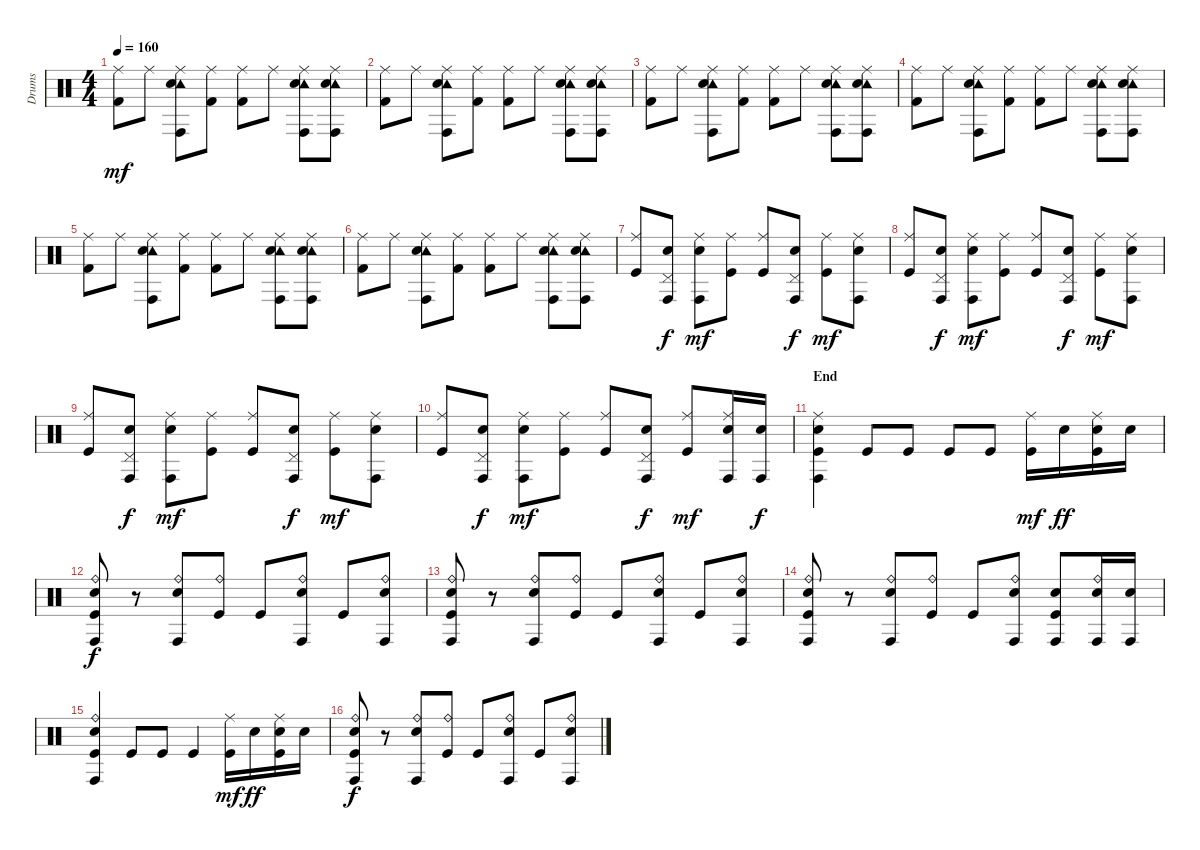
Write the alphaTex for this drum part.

\track ("Drums" "Drums") {instrument percussion}
\staff {score}
\articulation defaults
\ts (4 4)
\tempo 160
\clef neutral
\ks c
("Ride (middle)" "Kick (hit) 2").8{dy mf} "Ride (middle)".8 ("Ride (middle)" "Tambourine (hit)" "Conga high (hit)" "Electric Snare (hit)").8 ("Ride (middle)" "Kick (hit) 2").8 ("Ride (middle)" "Kick (hit) 2").8 "Ride (middle)".8 ("Ride (middle)" "Tambourine (hit)" "Conga high (hit)" "Electric Snare (hit)").8 ("Ride (middle)" "Tambourine (hit)" "Conga high (hit)" "Electric Snare (hit)").8 |
("Ride (middle)" "Kick (hit) 2").8 "Ride (middle)".8 ("Ride (middle)" "Tambourine (hit)" "Conga high (hit)" "Electric Snare (hit)").8 ("Ride (middle)" "Kick (hit) 2").8 ("Ride (middle)" "Kick (hit) 2").8 "Ride (middle)".8 ("Ride (middle)" "Tambourine (hit)" "Conga high (hit)" "Electric Snare (hit)").8 ("Ride (middle)" "Tambourine (hit)" "Conga high (hit)" "Electric Snare (hit)").8 |
("Ride (middle)" "Kick (hit) 2").8 "Ride (middle)".8 ("Ride (middle)" "Tambourine (hit)" "Conga high (hit)" "Electric Snare (hit)").8 ("Ride (middle)" "Kick (hit) 2").8 ("Ride (middle)" "Kick (hit) 2").8 "Ride (middle)".8 ("Ride (middle)" "Tambourine (hit)" "Conga high (hit)" "Electric Snare (hit)").8 ("Ride (middle)" "Tambourine (hit)" "Conga high (hit)" "Electric Snare (hit)").8 |
("Ride (middle)" "Kick (hit) 2").8 "Ride (middle)".8 ("Ride (middle)" "Tambourine (hit)" "Conga high (hit)" "Electric Snare (hit)").8 ("Ride (middle)" "Kick (hit) 2").8 ("Ride (middle)" "Kick (hit) 2").8 "Ride (middle)".8 ("Ride (middle)" "Tambourine (hit)" "Conga high (hit)" "Electric Snare (hit)").8 ("Ride (middle)" "Tambourine (hit)" "Conga high (hit)" "Electric Snare (hit)").8 |
("Ride (middle)" "Kick (hit) 2").8 "Ride (middle)".8 ("Ride (middle)" "Tambourine (hit)" "Conga high (hit)" "Electric Snare (hit)").8 ("Ride (middle)" "Kick (hit) 2").8 ("Ride (middle)" "Kick (hit) 2").8 "Ride (middle)".8 ("Ride (middle)" "Tambourine (hit)" "Conga high (hit)" "Electric Snare (hit)").8 ("Ride (middle)" "Tambourine (hit)" "Conga high (hit)" "Electric Snare (hit)").8 |
("Ride (middle)" "Kick (hit) 2").8 "Ride (middle)".8 ("Ride (middle)" "Tambourine (hit)" "Conga high (hit)" "Electric Snare (hit)").8 ("Ride (middle)" "Kick (hit) 2").8 ("Ride (middle)" "Kick (hit) 2").8 "Ride (middle)".8 ("Ride (middle)" "Tambourine (hit)" "Conga high (hit)" "Electric Snare (hit)").8 ("Ride (middle)" "Tambourine (hit)" "Conga high (hit)" "Electric Snare (hit)").8 |
("Ride (middle)" "Kick (hit)").8 ("Pedal Hi-Hat (hit)" "Conga high (hit)" "Electric Snare (hit)").8{dy f} ("Ride (middle)" "Conga high (hit)" "Electric Snare (hit)").8{dy mf} ("Ride (middle)" "Kick (hit)").8 ("Ride (middle)" "Kick (hit)").8 ("Pedal Hi-Hat (hit)" "Conga high (hit)" "Electric Snare (hit)").8{dy f} ("Ride (middle)" "Kick (hit)").8{dy mf} ("Ride (middle)" "Conga high (hit)" "Electric Snare (hit)").8 |
("Ride (middle)" "Kick (hit)").8 ("Pedal Hi-Hat (hit)" "Conga high (hit)" "Electric Snare (hit)").8{dy f} ("Ride (middle)" "Conga high (hit)" "Electric Snare (hit)").8{dy mf} ("Ride (middle)" "Kick (hit)").8 ("Ride (middle)" "Kick (hit)").8 ("Pedal Hi-Hat (hit)" "Conga high (hit)" "Electric Snare (hit)").8{dy f} ("Ride (middle)" "Kick (hit)").8{dy mf} ("Ride (middle)" "Conga high (hit)" "Electric Snare (hit)").8 |
("Ride (middle)" "Kick (hit)").8 ("Pedal Hi-Hat (hit)" "Conga high (hit)" "Electric Snare (hit)").8{dy f} ("Ride (middle)" "Conga high (hit)" "Electric Snare (hit)").8{dy mf} ("Ride (middle)" "Kick (hit)").8 ("Ride (middle)" "Kick (hit)").8 ("Pedal Hi-Hat (hit)" "Conga high (hit)" "Electric Snare (hit)").8{dy f} ("Ride (middle)" "Kick (hit)").8{dy mf} ("Ride (middle)" "Conga high (hit)" "Electric Snare (hit)").8 |
("Ride (middle)" "Kick (hit)").8 ("Pedal Hi-Hat (hit)" "Conga high (hit)" "Electric Snare (hit)").8{dy f} ("Ride (middle)" "Conga high (hit)" "Electric Snare (hit)").8{dy mf} ("Ride (middle)" "Kick (hit)").8 ("Ride (middle)" "Kick (hit)").8 ("Pedal Hi-Hat (hit)" "Conga high (hit)" "Electric Snare (hit)").8{dy f} ("Ride (middle)" "Kick (hit)").8{dy mf} ("Ride (middle)" "Conga high (hit)" "Electric Snare (hit)").16 ("Conga high (hit)" "Electric Snare (hit)").16{dy f} |
\section ("" "End")
("Ride (middle)" "Conga high (hit)" "Electric Snare (hit)" "Kick (hit)").4 "Kick (hit)".8 "Kick (hit)".8 "Kick (hit)".8 "Kick (hit)".8 ("Ride (middle)" "Kick (hit)").16{dy mf} "Electric Snare (hit)".16{dy ff} ("Ride (middle)" "Electric Snare (hit)" "Kick (hit)").16 "Electric Snare (hit)".16 |
("Ride (bell)" "Conga high (hit)" "Electric Snare (hit)" "Kick (hit)").8{dy f} r.8 ("Ride (bell)" "Conga high (hit)" "Electric Snare (hit)").8 ("Ride (bell)" "Kick (hit)").8 "Kick (hit)".8 ("Ride (bell)" "Conga high (hit)" "Electric Snare (hit)").8 "Kick (hit)".8 ("Ride (bell)" "Conga high (hit)" "Electric Snare (hit)").8 |
("Ride (bell)" "Conga high (hit)" "Electric Snare (hit)" "Kick (hit)").8 r.8 ("Ride (bell)" "Conga high (hit)" "Electric Snare (hit)").8 ("Ride (bell)" "Kick (hit)").8 "Kick (hit)".8 ("Ride (bell)" "Conga high (hit)" "Electric Snare (hit)").8 "Kick (hit)".8 ("Ride (bell)" "Conga high (hit)" "Electric Snare (hit)").8 |
("Ride (bell)" "Conga high (hit)" "Electric Snare (hit)" "Kick (hit)").8 r.8 ("Ride (bell)" "Conga high (hit)" "Electric Snare (hit)").8 ("Ride (bell)" "Kick (hit)").8 "Kick (hit)".8 ("Ride (bell)" "Conga high (hit)" "Electric Snare (hit)").8 ("Conga high (hit)" "Electric Snare (hit)" "Kick (hit)").8 ("Ride (bell)" "Conga high (hit)" "Electric Snare (hit)").16 ("Conga high (hit)" "Electric Snare (hit)").16 |
("Ride (bell)" "Conga high (hit)" "Electric Snare (hit)" "Kick (hit)").4 "Kick (hit)".8 "Kick (hit)".8 "Kick (hit)".4 ("Ride (middle)" "Kick (hit)").16{dy mf} "Electric Snare (hit)".16{dy ff} ("Ride (middle)" "Electric Snare (hit)" "Kick (hit)").16 "Electric Snare (hit)".16 |
("Ride (bell)" "Conga high (hit)" "Electric Snare (hit)" "Kick (hit)").8{dy f} r.8 ("Ride (bell)" "Conga high (hit)" "Electric Snare (hit)").8 ("Ride (bell)" "Kick (hit)").8 "Kick (hit)".8 ("Ride (bell)" "Conga high (hit)" "Electric Snare (hit)").8 "Kick (hit)".8 ("Ride (bell)" "Conga high (hit)" "Electric Snare (hit)").8
